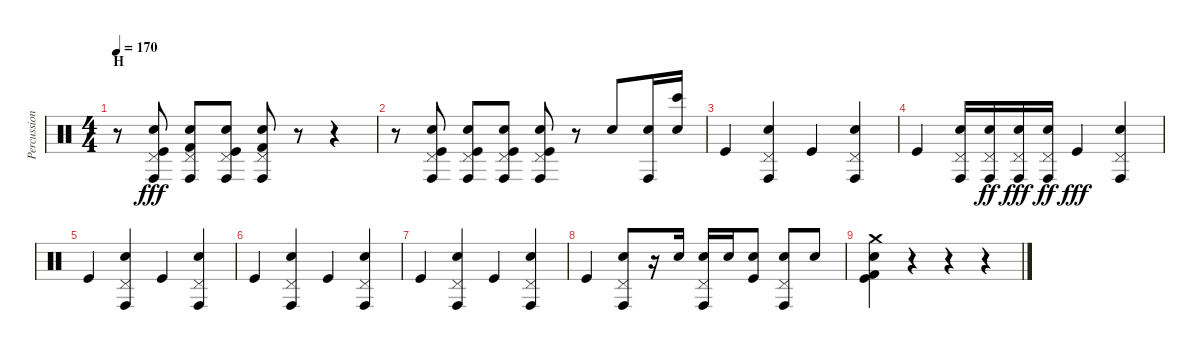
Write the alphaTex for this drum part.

\track ("Percussion" "Percussion") {instrument percussion}
\staff {score}
\articulation defaults
\ts (4 4)
\section ("" "H")
\tempo 170
\clef neutral
\ks c
r.8{dy fff} ("Pedal Hi-Hat (hit)" "Conga high (hit)" "Electric Snare (hit)" "Kick (hit)").8 ("Pedal Hi-Hat (hit)" "Conga high (hit)" "Electric Snare (hit)" "Kick (hit) 2").8 ("Pedal Hi-Hat (hit)" "Conga high (hit)" "Electric Snare (hit)" "Kick (hit)").8 ("Pedal Hi-Hat (hit)" "Conga high (hit)" "Electric Snare (hit)" "Kick (hit) 2").8 r.8 r.4 |
r.8 ("Pedal Hi-Hat (hit)" "Conga high (hit)" "Electric Snare (hit)" "Kick (hit)").8 ("Pedal Hi-Hat (hit)" "Conga high (hit)" "Electric Snare (hit)" "Kick (hit)").8 ("Pedal Hi-Hat (hit)" "Conga high (hit)" "Electric Snare (hit)" "Kick (hit)").8 ("Pedal Hi-Hat (hit)" "Conga high (hit)" "Electric Snare (hit)" "Kick (hit)").8 r.8 "Electric Snare (hit)".8 ("Conga high (hit)" "Electric Snare (hit)").16 ("Bongo High (hit)" "Electric Snare (hit)").16 |
"Kick (hit)".4 ("Pedal Hi-Hat (hit)" "Conga high (hit)" "Electric Snare (hit)").4 "Kick (hit)".4 ("Pedal Hi-Hat (hit)" "Conga high (hit)" "Electric Snare (hit)").4 |
"Kick (hit)".4 ("Pedal Hi-Hat (hit)" "Conga high (hit)" "Electric Snare (hit)").16 ("Pedal Hi-Hat (hit)" "Conga high (hit)" "Electric Snare (hit)").16{dy ff} ("Pedal Hi-Hat (hit)" "Conga high (hit)" "Electric Snare (hit)").16{dy fff} ("Pedal Hi-Hat (hit)" "Conga high (hit)" "Electric Snare (hit)").16{dy ff} "Kick (hit)".4{dy fff} ("Pedal Hi-Hat (hit)" "Conga high (hit)" "Electric Snare (hit)").4 |
"Kick (hit)".4 ("Pedal Hi-Hat (hit)" "Conga high (hit)" "Electric Snare (hit)").4 "Kick (hit)".4 ("Pedal Hi-Hat (hit)" "Conga high (hit)" "Electric Snare (hit)").4 |
"Kick (hit)".4 ("Pedal Hi-Hat (hit)" "Conga high (hit)" "Electric Snare (hit)").4 "Kick (hit)".4 ("Pedal Hi-Hat (hit)" "Conga high (hit)" "Electric Snare (hit)").4 |
"Kick (hit)".4 ("Pedal Hi-Hat (hit)" "Conga high (hit)" "Electric Snare (hit)").4 "Kick (hit)".4 ("Pedal Hi-Hat (hit)" "Conga high (hit)" "Electric Snare (hit)").4 |
"Kick (hit)".4 ("Pedal Hi-Hat (hit)" "Conga high (hit)" "Electric Snare (hit)").8 r.16 "Electric Snare (hit)".16 ("Pedal Hi-Hat (hit)" "Conga high (hit)" "Electric Snare (hit)").16 "Electric Snare (hit)".16 ("Electric Snare (hit)" "Kick (hit)").8 ("Pedal Hi-Hat (hit)" "Conga high (hit)" "Electric Snare (hit)").8 "Electric Snare (hit)".8 |
("Crash medium (hit)" "Kick (hit) 2" "Electric Snare (hit)" "Kick (hit)").4 r.4 r.4 r.4
